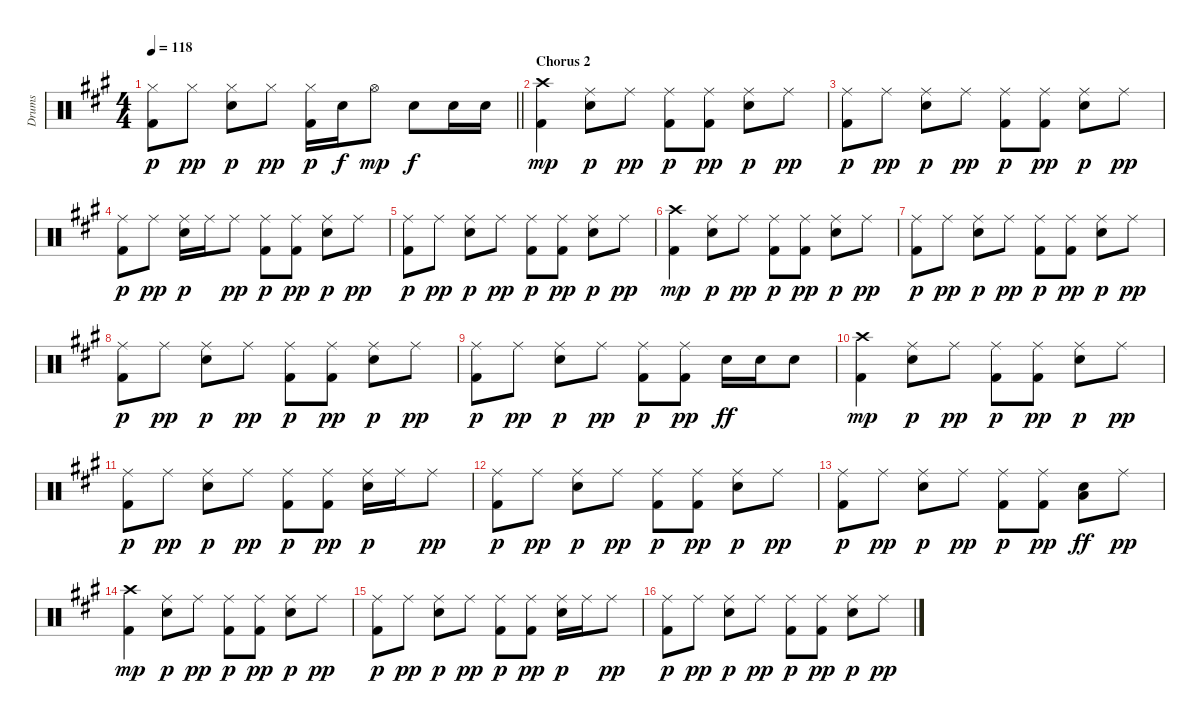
\track ("Drums" "Drums") {instrument percussion}
\staff {score}
\articulation defaults
\ts (4 4)
\tempo 118
\clef neutral
\barLineRight lightlight
\ks a
("Hi-Hat (closed)" "Kick (hit) 2").8{dy p} "Hi-Hat (closed)".8{dy pp} ("Hi-Hat (closed)" "Electric Snare (hit)").8{dy p} "Hi-Hat (closed)".8{dy pp} ("Hi-Hat (closed)" "Kick (hit) 2").16{dy p} "Electric Snare (hit)".16{dy f} "Hi-Hat (open)".8{dy mp} "Electric Snare (hit)".8{dy f} "Electric Snare (hit)".16 "Electric Snare (hit)".16 |
\section ("" "Chorus 2")
("Crash high (hit)" "Kick (hit) 2").4{dy mp} ("Electric Snare (hit)" "Ride (middle)").8{dy p} "Ride (middle)".8{dy pp} ("Kick (hit) 2" "Ride (middle)").8{dy p} ("Kick (hit) 2" "Ride (middle)").8{dy pp} ("Electric Snare (hit)" "Ride (middle)").8{dy p} "Ride (middle)".8{dy pp} |
("Kick (hit) 2" "Ride (middle)").8{dy p} "Ride (middle)".8{dy pp} ("Electric Snare (hit)" "Ride (middle)").8{dy p} "Ride (middle)".8{dy pp} ("Kick (hit) 2" "Ride (middle)").8{dy p} ("Kick (hit) 2" "Ride (middle)").8{dy pp} ("Electric Snare (hit)" "Ride (middle)").8{dy p} "Ride (middle)".8{dy pp} |
("Kick (hit) 2" "Ride (middle)").8{dy p} "Ride (middle)".8{dy pp} ("Electric Snare (hit)" "Ride (middle)").16{dy p} "Ride (middle)".16 "Ride (middle)".8{dy pp} ("Kick (hit) 2" "Ride (middle)").8{dy p} ("Kick (hit) 2" "Ride (middle)").8{dy pp} ("Electric Snare (hit)" "Ride (middle)").8{dy p} "Ride (middle)".8{dy pp} |
("Kick (hit) 2" "Ride (middle)").8{dy p} "Ride (middle)".8{dy pp} ("Electric Snare (hit)" "Ride (middle)").8{dy p} "Ride (middle)".8{dy pp} ("Kick (hit) 2" "Ride (middle)").8{dy p} ("Kick (hit) 2" "Ride (middle)").8{dy pp} ("Electric Snare (hit)" "Ride (middle)").8{dy p} "Ride (middle)".8{dy pp} |
("Crash high (hit)" "Kick (hit) 2").4{dy mp} ("Electric Snare (hit)" "Ride (middle)").8{dy p} "Ride (middle)".8{dy pp} ("Kick (hit) 2" "Ride (middle)").8{dy p} ("Kick (hit) 2" "Ride (middle)").8{dy pp} ("Electric Snare (hit)" "Ride (middle)").8{dy p} "Ride (middle)".8{dy pp} |
("Kick (hit) 2" "Ride (middle)").8{dy p} "Ride (middle)".8{dy pp} ("Electric Snare (hit)" "Ride (middle)").8{dy p} "Ride (middle)".8{dy pp} ("Kick (hit) 2" "Ride (middle)").8{dy p} ("Kick (hit) 2" "Ride (middle)").8{dy pp} ("Electric Snare (hit)" "Ride (middle)").8{dy p} "Ride (middle)".8{dy pp} |
("Kick (hit) 2" "Ride (middle)").8{dy p} "Ride (middle)".8{dy pp} ("Electric Snare (hit)" "Ride (middle)").8{dy p} "Ride (middle)".8{dy pp} ("Kick (hit) 2" "Ride (middle)").8{dy p} ("Kick (hit) 2" "Ride (middle)").8{dy pp} ("Electric Snare (hit)" "Ride (middle)").8{dy p} "Ride (middle)".8{dy pp} |
("Kick (hit) 2" "Ride (middle)").8{dy p} "Ride (middle)".8{dy pp} ("Electric Snare (hit)" "Ride (middle)").8{dy p} "Ride (middle)".8{dy pp} ("Kick (hit) 2" "Ride (middle)").8{dy p} ("Kick (hit) 2" "Ride (middle)").8{dy pp} "Electric Snare (hit)".16{dy ff} "Electric Snare (hit)".16 "Electric Snare (hit)".8 |
("Crash high (hit)" "Kick (hit) 2").4{dy mp} ("Electric Snare (hit)" "Ride (middle)").8{dy p} "Ride (middle)".8{dy pp} ("Kick (hit) 2" "Ride (middle)").8{dy p} ("Kick (hit) 2" "Ride (middle)").8{dy pp} ("Electric Snare (hit)" "Ride (middle)").8{dy p} "Ride (middle)".8{dy pp} |
("Kick (hit) 2" "Ride (middle)").8{dy p} "Ride (middle)".8{dy pp} ("Electric Snare (hit)" "Ride (middle)").8{dy p} "Ride (middle)".8{dy pp} ("Kick (hit) 2" "Ride (middle)").8{dy p} ("Kick (hit) 2" "Ride (middle)").8{dy pp} ("Electric Snare (hit)" "Ride (middle)").16{dy p} "Ride (middle)".16 "Ride (middle)".8{dy pp} |
("Kick (hit) 2" "Ride (middle)").8{dy p} "Ride (middle)".8{dy pp} ("Electric Snare (hit)" "Ride (middle)").8{dy p} "Ride (middle)".8{dy pp} ("Kick (hit) 2" "Ride (middle)").8{dy p} ("Kick (hit) 2" "Ride (middle)").8{dy pp} ("Electric Snare (hit)" "Ride (middle)").8{dy p} "Ride (middle)".8{dy pp} |
("Kick (hit) 2" "Ride (middle)").8{dy p} "Ride (middle)".8{dy pp} ("Electric Snare (hit)" "Ride (middle)").8{dy p} "Ride (middle)".8{dy pp} ("Kick (hit) 2" "Ride (middle)").8{dy p} ("Kick (hit) 2" "Ride (middle)").8{dy pp} ("Low Tom (hit)" "Electric Snare (hit)").8{dy ff} "Ride (middle)".8{dy pp} |
("Crash high (hit)" "Kick (hit) 2").4{dy mp} ("Electric Snare (hit)" "Ride (middle)").8{dy p} "Ride (middle)".8{dy pp} ("Kick (hit) 2" "Ride (middle)").8{dy p} ("Kick (hit) 2" "Ride (middle)").8{dy pp} ("Electric Snare (hit)" "Ride (middle)").8{dy p} "Ride (middle)".8{dy pp} |
("Kick (hit) 2" "Ride (middle)").8{dy p} "Ride (middle)".8{dy pp} ("Electric Snare (hit)" "Ride (middle)").8{dy p} "Ride (middle)".8{dy pp} ("Kick (hit) 2" "Ride (middle)").8{dy p} ("Kick (hit) 2" "Ride (middle)").8{dy pp} ("Electric Snare (hit)" "Ride (middle)").16{dy p} "Ride (middle)".16 "Ride (middle)".8{dy pp} |
("Kick (hit) 2" "Ride (middle)").8{dy p} "Ride (middle)".8{dy pp} ("Electric Snare (hit)" "Ride (middle)").8{dy p} "Ride (middle)".8{dy pp} ("Kick (hit) 2" "Ride (middle)").8{dy p} ("Kick (hit) 2" "Ride (middle)").8{dy pp} ("Electric Snare (hit)" "Ride (middle)").8{dy p} "Ride (middle)".8{dy pp}
